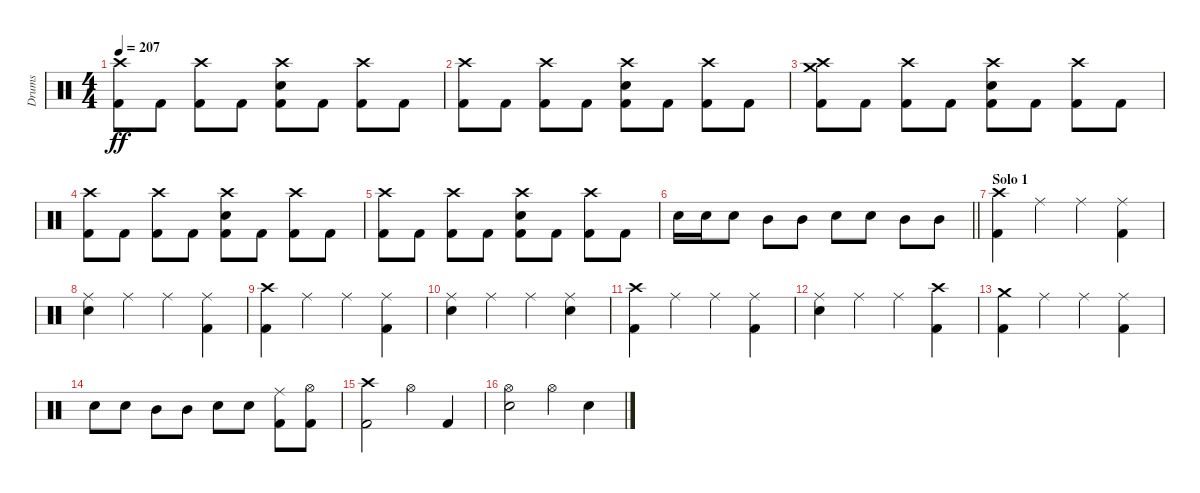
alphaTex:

\track ("Drums" "Drums") {instrument percussion}
\staff {score}
\articulation defaults
\ts (4 4)
\tempo 207
\clef neutral
\ks c
("Crash high (hit)" "Kick (hit) 2").8{dy ff} "Kick (hit) 2".8 ("Crash high (hit)" "Kick (hit) 2").8 "Kick (hit) 2".8 ("Crash high (hit)" "Snare (hit) 2" "Kick (hit) 2").8 "Kick (hit) 2".8 ("Crash high (hit)" "Kick (hit) 2").8 "Kick (hit) 2".8 |
("Crash high (hit)" "Kick (hit) 2").8 "Kick (hit) 2".8 ("Crash high (hit)" "Kick (hit) 2").8 "Kick (hit) 2".8 ("Crash high (hit)" "Snare (hit) 2" "Kick (hit) 2").8 "Kick (hit) 2".8 ("Crash high (hit)" "Kick (hit) 2").8 "Kick (hit) 2".8 |
("Crash medium (hit)" "Crash high (hit)" "Kick (hit) 2").8 "Kick (hit) 2".8 ("Crash high (hit)" "Kick (hit) 2").8 "Kick (hit) 2".8 ("Crash high (hit)" "Snare (hit) 2" "Kick (hit) 2").8 "Kick (hit) 2".8 ("Crash high (hit)" "Kick (hit) 2").8 "Kick (hit) 2".8 |
("Crash high (hit)" "Kick (hit) 2").8 "Kick (hit) 2".8 ("Crash high (hit)" "Kick (hit) 2").8 "Kick (hit) 2".8 ("Crash high (hit)" "Snare (hit) 2" "Kick (hit) 2").8 "Kick (hit) 2".8 ("Crash high (hit)" "Kick (hit) 2").8 "Kick (hit) 2".8 |
("Crash high (hit)" "Kick (hit) 2").8 "Kick (hit) 2".8 ("Crash high (hit)" "Kick (hit) 2").8 "Kick (hit) 2".8 ("Crash high (hit)" "Snare (hit) 2" "Kick (hit) 2").8 "Kick (hit) 2".8 ("Crash high (hit)" "Kick (hit) 2").8 "Kick (hit) 2".8 |
\barLineRight lightlight "Snare (hit) 2".16 "Snare (hit) 2".16 "Snare (hit) 2".8 "Mid Tom (hit)".8 "Mid Tom (hit)".8 "Snare (hit) 2".8 "Snare (hit) 2".8 "Mid Tom (hit)".8 "Mid Tom (hit)".8
|
\section ("" "Solo 1")
("Crash high (hit)" "Kick (hit) 2").4 "Ride (middle)".4 "Ride (middle)".4 ("Ride (middle)" "Kick (hit) 2").4 |
("Ride (middle)" "Snare (hit) 2").4 "Ride (middle)".4 "Ride (middle)".4 ("Ride (middle)" "Kick (hit) 2").4 |
("Crash high (hit)" "Kick (hit) 2").4 "Ride (middle)".4 "Ride (middle)".4 ("Ride (middle)" "Kick (hit) 2").4 |
("Ride (middle)" "Snare (hit) 2").4 "Ride (middle)".4 "Ride (middle)".4 ("Ride (middle)" "Snare (hit) 2").4 |
("Crash high (hit)" "Kick (hit) 2").4 "Ride (middle)".4 "Ride (middle)".4 ("Ride (middle)" "Kick (hit) 2").4 |
("Ride (middle)" "Snare (hit) 2").4 "Ride (middle)".4 "Ride (middle)".4 ("Crash high (hit)" "Kick (hit) 2").4 |
("Crash medium (hit)" "Kick (hit) 2").4 "Ride (middle)".4 "Ride (middle)".4 ("Ride (middle)" "Kick (hit) 2").4 |
"Snare (hit) 2".8 "Snare (hit) 2".8 "Mid Tom (hit)".8 "Mid Tom (hit)".8 "Snare (hit) 2".8 "Snare (hit) 2".8 ("Ride (middle)" "Kick (hit) 2").8 ("Hi-Hat (open)" "Kick (hit) 2").8 |
("Crash high (hit)" "Kick (hit) 2").2 "Hi-Hat (open)".4 "Kick (hit) 2".4 |
("Hi-Hat (open)" "Snare (hit) 2").2 "Hi-Hat (open)".4 "Snare (hit) 2".4
